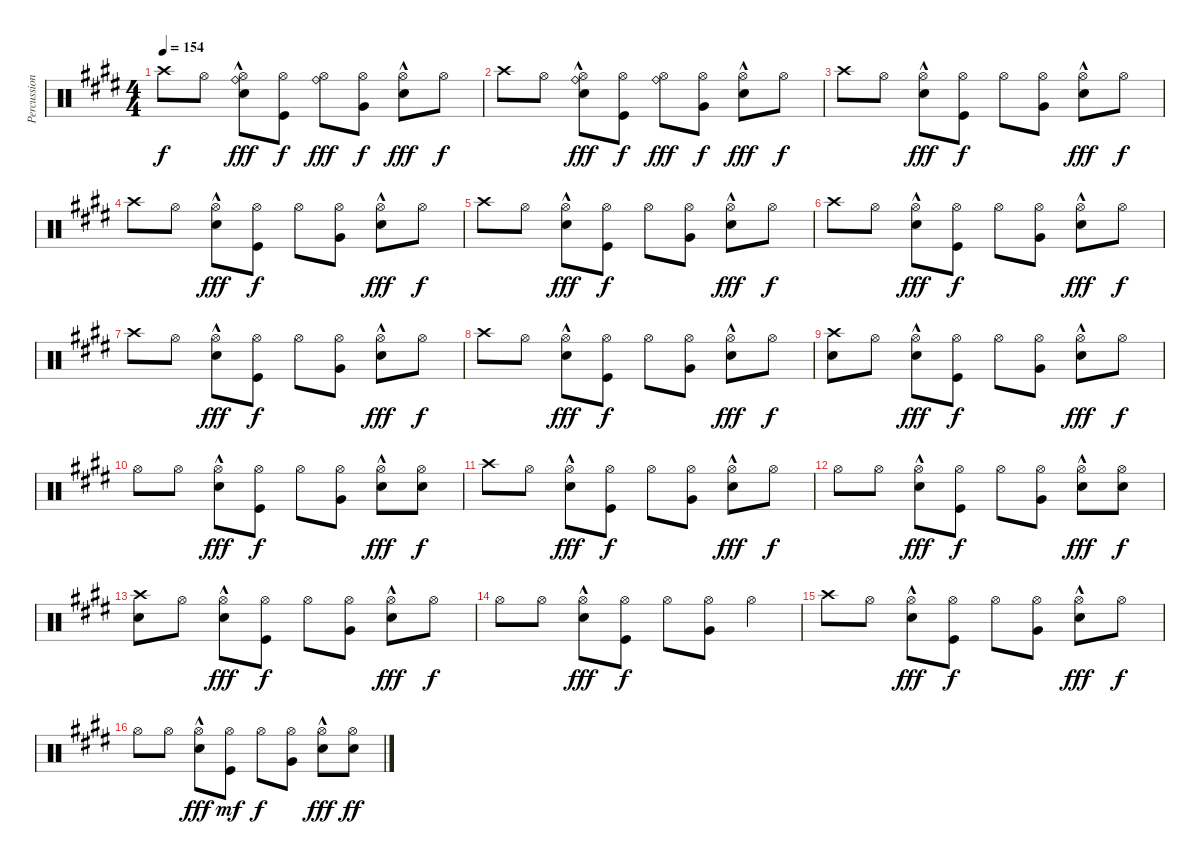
\track ("Percussion (Derek Grant)" "Percussion") {instrument percussion}
\staff {score}
\articulation defaults
\ts (4 4)
\tempo 154
\clef neutral
\ks c#minor "Crash high (hit)".8{dy f} "Hi-Hat (open)".8
("Ride (bell)" "Hi-Hat (open)" "Snare (hit) 2"{hac}).8{dy fff} ("Hi-Hat (open)" "Kick (hit)").8{dy f} ("Ride (bell)" "Hi-Hat (open)").8{dy fff} ("Hi-Hat (open)" "Very Low Tom (hit)").8{dy f} ("Hi-Hat (open)" "Snare (hit) 2"{hac}).8{dy fff} "Hi-Hat (open)".8{dy f} |
"Crash high (hit)".8 "Hi-Hat (open)".8 ("Ride (bell)" "Hi-Hat (open)" "Snare (hit) 2"{hac}).8{dy fff} ("Hi-Hat (open)" "Kick (hit)").8{dy f} ("Ride (bell)" "Hi-Hat (open)").8{dy fff} ("Hi-Hat (open)" "Very Low Tom (hit)").8{dy f} ("Hi-Hat (open)" "Snare (hit) 2"{hac}).8{dy fff} "Hi-Hat (open)".8{dy f} |
"Crash high (hit)".8 "Hi-Hat (open)".8 ("Hi-Hat (open)" "Snare (hit) 2"{hac}).8{dy fff} ("Hi-Hat (open)" "Kick (hit)").8{dy f} "Hi-Hat (open)".8 ("Hi-Hat (open)" "Very Low Tom (hit)").8 ("Hi-Hat (open)" "Snare (hit) 2"{hac}).8{dy fff} "Hi-Hat (open)".8{dy f} |
"Crash high (hit)".8 "Hi-Hat (open)".8 ("Hi-Hat (open)" "Snare (hit) 2"{hac}).8{dy fff} ("Hi-Hat (open)" "Kick (hit)").8{dy f} "Hi-Hat (open)".8 ("Hi-Hat (open)" "Very Low Tom (hit)").8 ("Hi-Hat (open)" "Snare (hit) 2"{hac}).8{dy fff} "Hi-Hat (open)".8{dy f} |
"Crash high (hit)".8 "Hi-Hat (open)".8 ("Hi-Hat (open)" "Snare (hit) 2"{hac}).8{dy fff} ("Hi-Hat (open)" "Kick (hit)").8{dy f} "Hi-Hat (open)".8 ("Hi-Hat (open)" "Very Low Tom (hit)").8 ("Hi-Hat (open)" "Snare (hit) 2"{hac}).8{dy fff} "Hi-Hat (open)".8{dy f} |
"Crash high (hit)".8 "Hi-Hat (open)".8 ("Hi-Hat (open)" "Snare (hit) 2"{hac}).8{dy fff} ("Hi-Hat (open)" "Kick (hit)").8{dy f} "Hi-Hat (open)".8 ("Hi-Hat (open)" "Very Low Tom (hit)").8 ("Hi-Hat (open)" "Snare (hit) 2"{hac}).8{dy fff} "Hi-Hat (open)".8{dy f} |
"Crash high (hit)".8 "Hi-Hat (open)".8 ("Hi-Hat (open)" "Snare (hit) 2"{hac}).8{dy fff} ("Hi-Hat (open)" "Kick (hit)").8{dy f} "Hi-Hat (open)".8 ("Hi-Hat (open)" "Very Low Tom (hit)").8 ("Hi-Hat (open)" "Snare (hit) 2"{hac}).8{dy fff} "Hi-Hat (open)".8{dy f} |
"Crash high (hit)".8 "Hi-Hat (open)".8 ("Hi-Hat (open)" "Snare (hit) 2"{hac}).8{dy fff} ("Hi-Hat (open)" "Kick (hit)").8{dy f} "Hi-Hat (open)".8 ("Hi-Hat (open)" "Very Low Tom (hit)").8 ("Hi-Hat (open)" "Snare (hit) 2"{hac}).8{dy fff} "Hi-Hat (open)".8{dy f} |
("Crash high (hit)" "Electric Snare (hit)").8 "Hi-Hat (open)".8 ("Hi-Hat (open)" "Snare (hit) 2"{hac}).8{dy fff} ("Hi-Hat (open)" "Kick (hit)").8{dy f} "Hi-Hat (open)".8 ("Hi-Hat (open)" "Very Low Tom (hit)").8 ("Hi-Hat (open)" "Snare (hit) 2"{hac}).8{dy fff} "Hi-Hat (open)".8{dy f} |
"Hi-Hat (open)".8 "Hi-Hat (open)".8 ("Hi-Hat (open)" "Snare (hit) 2"{hac}).8{dy fff} ("Hi-Hat (open)" "Kick (hit)").8{dy f} "Hi-Hat (open)".8 ("Hi-Hat (open)" "Very Low Tom (hit)").8 ("Hi-Hat (open)" "Snare (hit) 2"{hac}).8{dy fff} ("Hi-Hat (open)" "Electric Snare (hit)").8{dy f} |
"Crash high (hit)".8 "Hi-Hat (open)".8 ("Hi-Hat (open)" "Snare (hit) 2"{hac}).8{dy fff} ("Hi-Hat (open)" "Kick (hit)").8{dy f} "Hi-Hat (open)".8 ("Hi-Hat (open)" "Very Low Tom (hit)").8 ("Hi-Hat (open)" "Snare (hit) 2"{hac}).8{dy fff} "Hi-Hat (open)".8{dy f} |
"Hi-Hat (open)".8 "Hi-Hat (open)".8 ("Hi-Hat (open)" "Snare (hit) 2"{hac}).8{dy fff} ("Hi-Hat (open)" "Kick (hit)").8{dy f} "Hi-Hat (open)".8 ("Hi-Hat (open)" "Very Low Tom (hit)").8 ("Hi-Hat (open)" "Snare (hit) 2"{hac}).8{dy fff} ("Hi-Hat (open)" "Electric Snare (hit)").8{dy f} |
("Crash high (hit)" "Electric Snare (hit)").8 "Hi-Hat (open)".8 ("Hi-Hat (open)" "Snare (hit) 2"{hac}).8{dy fff} ("Hi-Hat (open)" "Kick (hit)").8{dy f} "Hi-Hat (open)".8 ("Hi-Hat (open)" "Very Low Tom (hit)").8 ("Hi-Hat (open)" "Snare (hit) 2"{hac}).8{dy fff} "Hi-Hat (open)".8{dy f} |
"Hi-Hat (open)".8 "Hi-Hat (open)".8 ("Hi-Hat (open)" "Snare (hit) 2"{hac}).8{dy fff} ("Hi-Hat (open)" "Kick (hit)").8{dy f} "Hi-Hat (open)".8 ("Hi-Hat (open)" "Very Low Tom (hit)").8 "Hi-Hat (open)".4 |
"Crash high (hit)".8 "Hi-Hat (open)".8 ("Hi-Hat (open)" "Snare (hit) 2"{hac}).8{dy fff} ("Hi-Hat (open)" "Kick (hit)").8{dy f} "Hi-Hat (open)".8 ("Hi-Hat (open)" "Very Low Tom (hit)").8 ("Hi-Hat (open)" "Snare (hit) 2"{hac}).8{dy fff} "Hi-Hat (open)".8{dy f} |
"Hi-Hat (open)".8 "Hi-Hat (open)".8 ("Hi-Hat (open)" "Snare (hit) 2"{hac}).8{dy fff} ("Hi-Hat (open)" "Kick (hit)").8{dy mf} "Hi-Hat (open)".8{dy f} ("Hi-Hat (open)" "Very Low Tom (hit)").8 ("Hi-Hat (open)" "Snare (hit) 2"{hac}).8{dy fff} ("Hi-Hat (open)" "Electric Snare (hit)").8{dy ff}
